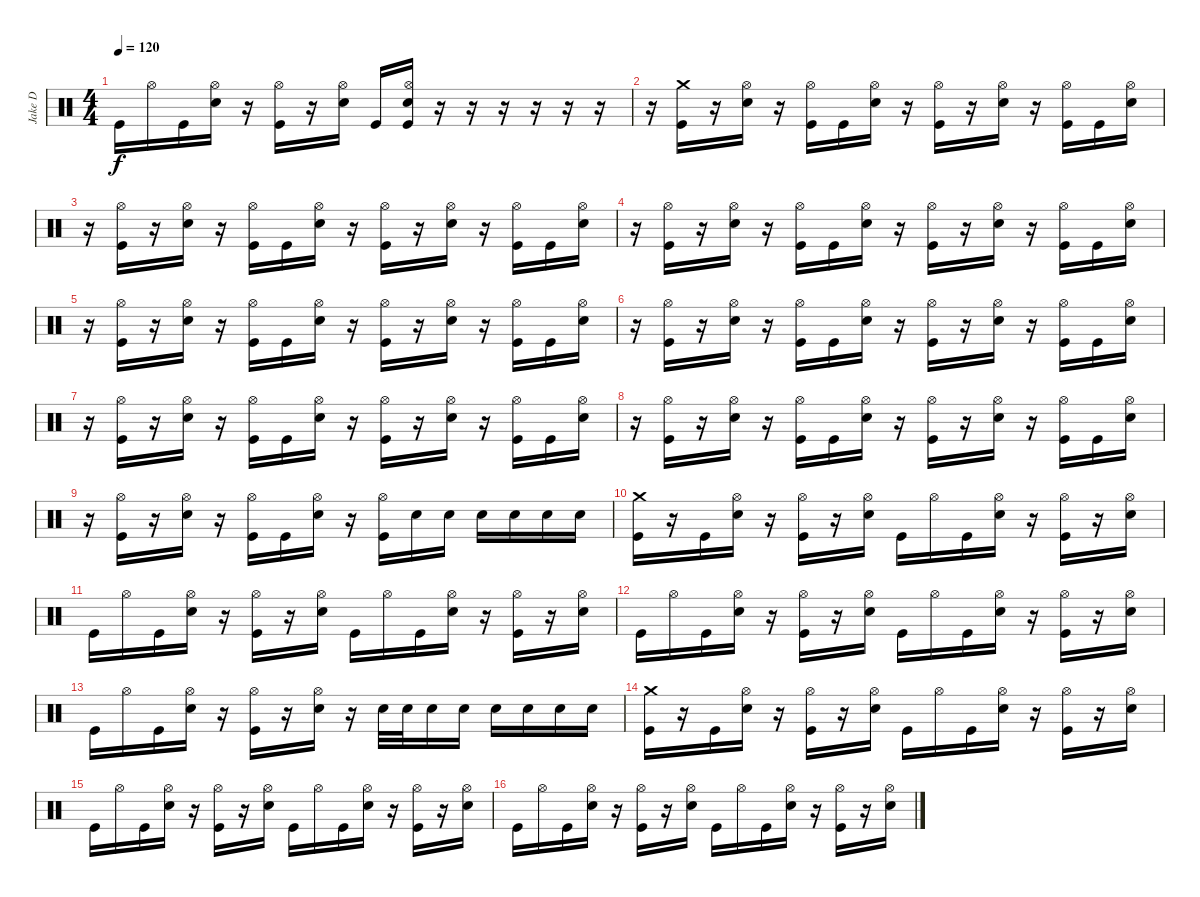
\track ("Jake D" "Jake D") {instrument percussion}
\staff {score}
\articulation defaults
\ts (4 4)
\tempo 120
\clef neutral
\ks c "Kick (hit)".16{dy f} "Hi-Hat (open)".16 "Kick (hit)".16
("Hi-Hat (open)" "Electric Snare (hit)").16 r.16 ("Hi-Hat (open)" "Kick (hit)").16 r.16 ("Hi-Hat (open)" "Electric Snare (hit)").16 "Kick (hit)".16 ("Hi-Hat (open)" "Electric Snare (hit)" "Kick (hit)").16 r.16 r.16 r.16 r.16 r.16 r.16 |
r.16 ("Crash medium (hit)" "Kick (hit)").16 r.16 ("Hi-Hat (open)" "Electric Snare (hit)").16 r.16 ("Hi-Hat (open)" "Kick (hit)").16 "Kick (hit)".16 ("Hi-Hat (open)" "Electric Snare (hit)").16 r.16 ("Hi-Hat (open)" "Kick (hit)").16 r.16 ("Hi-Hat (open)" "Electric Snare (hit)").16 r.16 ("Hi-Hat (open)" "Kick (hit)").16 "Kick (hit)".16 ("Hi-Hat (open)" "Electric Snare (hit)").16 |
r.16 ("Hi-Hat (open)" "Kick (hit)").16 r.16 ("Hi-Hat (open)" "Electric Snare (hit)").16 r.16 ("Hi-Hat (open)" "Kick (hit)").16 "Kick (hit)".16 ("Hi-Hat (open)" "Electric Snare (hit)").16 r.16 ("Hi-Hat (open)" "Kick (hit)").16 r.16 ("Hi-Hat (open)" "Electric Snare (hit)").16 r.16 ("Hi-Hat (open)" "Kick (hit)").16 "Kick (hit)".16 ("Hi-Hat (open)" "Electric Snare (hit)").16 |
r.16 ("Hi-Hat (open)" "Kick (hit)").16 r.16 ("Hi-Hat (open)" "Electric Snare (hit)").16 r.16 ("Hi-Hat (open)" "Kick (hit)").16 "Kick (hit)".16 ("Hi-Hat (open)" "Electric Snare (hit)").16 r.16 ("Hi-Hat (open)" "Kick (hit)").16 r.16 ("Hi-Hat (open)" "Electric Snare (hit)").16 r.16 ("Hi-Hat (open)" "Kick (hit)").16 "Kick (hit)".16 ("Hi-Hat (open)" "Electric Snare (hit)").16 |
r.16 ("Hi-Hat (open)" "Kick (hit)").16 r.16 ("Hi-Hat (open)" "Electric Snare (hit)").16 r.16 ("Hi-Hat (open)" "Kick (hit)").16 "Kick (hit)".16 ("Hi-Hat (open)" "Electric Snare (hit)").16 r.16 ("Hi-Hat (open)" "Kick (hit)").16 r.16 ("Hi-Hat (open)" "Electric Snare (hit)").16 r.16 ("Hi-Hat (open)" "Kick (hit)").16 "Kick (hit)".16 ("Hi-Hat (open)" "Electric Snare (hit)").16 |
r.16 ("Hi-Hat (open)" "Kick (hit)").16 r.16 ("Hi-Hat (open)" "Electric Snare (hit)").16 r.16 ("Hi-Hat (open)" "Kick (hit)").16 "Kick (hit)".16 ("Hi-Hat (open)" "Electric Snare (hit)").16 r.16 ("Hi-Hat (open)" "Kick (hit)").16 r.16 ("Hi-Hat (open)" "Electric Snare (hit)").16 r.16 ("Hi-Hat (open)" "Kick (hit)").16 "Kick (hit)".16 ("Hi-Hat (open)" "Electric Snare (hit)").16 |
r.16 ("Hi-Hat (open)" "Kick (hit)").16 r.16 ("Hi-Hat (open)" "Electric Snare (hit)").16 r.16 ("Hi-Hat (open)" "Kick (hit)").16 "Kick (hit)".16 ("Hi-Hat (open)" "Electric Snare (hit)").16 r.16 ("Hi-Hat (open)" "Kick (hit)").16 r.16 ("Hi-Hat (open)" "Electric Snare (hit)").16 r.16 ("Hi-Hat (open)" "Kick (hit)").16 "Kick (hit)".16 ("Hi-Hat (open)" "Electric Snare (hit)").16 |
r.16 ("Hi-Hat (open)" "Kick (hit)").16 r.16 ("Hi-Hat (open)" "Electric Snare (hit)").16 r.16 ("Hi-Hat (open)" "Kick (hit)").16 "Kick (hit)".16 ("Hi-Hat (open)" "Electric Snare (hit)").16 r.16 ("Hi-Hat (open)" "Kick (hit)").16 r.16 ("Hi-Hat (open)" "Electric Snare (hit)").16 r.16 ("Hi-Hat (open)" "Kick (hit)").16 "Kick (hit)".16 ("Hi-Hat (open)" "Electric Snare (hit)").16 |
r.16 ("Hi-Hat (open)" "Kick (hit)").16 r.16 ("Hi-Hat (open)" "Electric Snare (hit)").16 r.16 ("Hi-Hat (open)" "Kick (hit)").16 "Kick (hit)".16 ("Hi-Hat (open)" "Electric Snare (hit)").16 r.16 ("Hi-Hat (open)" "Kick (hit)").16 "Electric Snare (hit)".16 "Electric Snare (hit)".16 "Electric Snare (hit)".16 "Electric Snare (hit)".16 "Electric Snare (hit)".16 "Electric Snare (hit)".16 |
("Crash medium (hit)" "Kick (hit)").16 r.16 "Kick (hit)".16 ("Hi-Hat (open)" "Electric Snare (hit)").16 r.16 ("Hi-Hat (open)" "Kick (hit)").16 r.16 ("Hi-Hat (open)" "Electric Snare (hit)").16 "Kick (hit)".16 "Hi-Hat (open)".16 "Kick (hit)".16 ("Hi-Hat (open)" "Electric Snare (hit)").16 r.16 ("Hi-Hat (open)" "Kick (hit)").16 r.16 ("Hi-Hat (open)" "Electric Snare (hit)").16 |
"Kick (hit)".16 "Hi-Hat (open)".16 "Kick (hit)".16 ("Hi-Hat (open)" "Electric Snare (hit)").16 r.16 ("Hi-Hat (open)" "Kick (hit)").16 r.16 ("Hi-Hat (open)" "Electric Snare (hit)").16 "Kick (hit)".16 "Hi-Hat (open)".16 "Kick (hit)".16 ("Hi-Hat (open)" "Electric Snare (hit)").16 r.16 ("Hi-Hat (open)" "Kick (hit)").16 r.16 ("Hi-Hat (open)" "Electric Snare (hit)").16 |
"Kick (hit)".16 "Hi-Hat (open)".16 "Kick (hit)".16 ("Hi-Hat (open)" "Electric Snare (hit)").16 r.16 ("Hi-Hat (open)" "Kick (hit)").16 r.16 ("Hi-Hat (open)" "Electric Snare (hit)").16 "Kick (hit)".16 "Hi-Hat (open)".16 "Kick (hit)".16 ("Hi-Hat (open)" "Electric Snare (hit)").16 r.16 ("Hi-Hat (open)" "Kick (hit)").16 r.16 ("Hi-Hat (open)" "Electric Snare (hit)").16 |
"Kick (hit)".16 "Hi-Hat (open)".16 "Kick (hit)".16 ("Hi-Hat (open)" "Electric Snare (hit)").16 r.16 ("Hi-Hat (open)" "Kick (hit)").16 r.16 ("Hi-Hat (open)" "Electric Snare (hit)").16 r.16 "Electric Snare (hit)".32 "Electric Snare (hit)".32 "Electric Snare (hit)".16 "Electric Snare (hit)".16 "Electric Snare (hit)".16 "Electric Snare (hit)".16 "Electric Snare (hit)".16 "Electric Snare (hit)".16 |
("Crash medium (hit)" "Kick (hit)").16 r.16 "Kick (hit)".16 ("Hi-Hat (open)" "Electric Snare (hit)").16 r.16 ("Hi-Hat (open)" "Kick (hit)").16 r.16 ("Hi-Hat (open)" "Electric Snare (hit)").16 "Kick (hit)".16 "Hi-Hat (open)".16 "Kick (hit)".16 ("Hi-Hat (open)" "Electric Snare (hit)").16 r.16 ("Hi-Hat (open)" "Kick (hit)").16 r.16 ("Hi-Hat (open)" "Electric Snare (hit)").16 |
"Kick (hit)".16 "Hi-Hat (open)".16 "Kick (hit)".16 ("Hi-Hat (open)" "Electric Snare (hit)").16 r.16 ("Hi-Hat (open)" "Kick (hit)").16 r.16 ("Hi-Hat (open)" "Electric Snare (hit)").16 "Kick (hit)".16 "Hi-Hat (open)".16 "Kick (hit)".16 ("Hi-Hat (open)" "Electric Snare (hit)").16 r.16 ("Hi-Hat (open)" "Kick (hit)").16 r.16 ("Hi-Hat (open)" "Electric Snare (hit)").16 |
"Kick (hit)".16 "Hi-Hat (open)".16 "Kick (hit)".16 ("Hi-Hat (open)" "Electric Snare (hit)").16 r.16 ("Hi-Hat (open)" "Kick (hit)").16 r.16 ("Hi-Hat (open)" "Electric Snare (hit)").16 "Kick (hit)".16 "Hi-Hat (open)".16 "Kick (hit)".16 ("Hi-Hat (open)" "Electric Snare (hit)").16 r.16 ("Hi-Hat (open)" "Kick (hit)").16 r.16 ("Hi-Hat (open)" "Electric Snare (hit)").16
